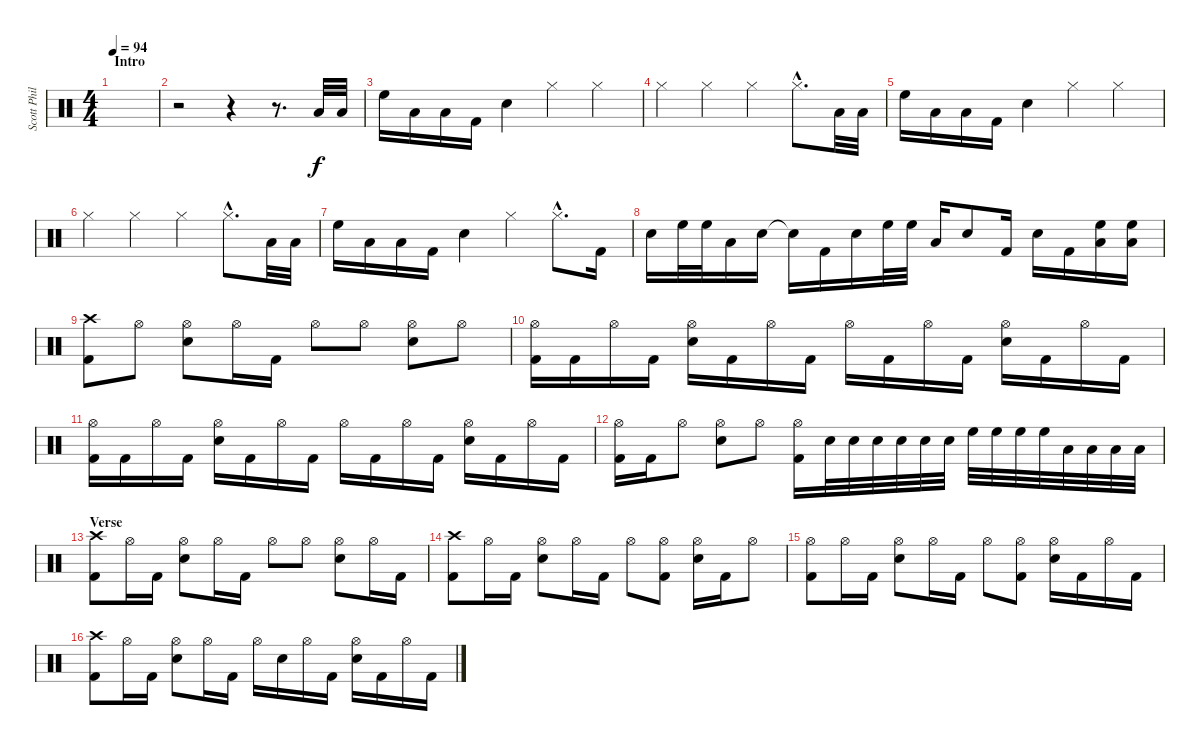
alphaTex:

\track ("Scott Phillips" "Scott Phil") {instrument percussion}
\staff {score}
\articulation defaults
\ts (4 4)
\section ("" "Intro")
\tempo 94
\clef neutral
\ks c
|
r.2 r.4 r.8{d} "Low Floor Tom (hit)".32 "Low Floor Tom (hit)".32 |
"High Floor Tom (hit)".16 "Low Floor Tom (hit)".16 "Low Floor Tom (hit)".16 "Kick (hit) 2".16 "Electric Snare (hit)".4 "Hi-Hat (closed)".4 "Hi-Hat (closed)".4 |
"Hi-Hat (closed)".4 "Hi-Hat (closed)".4 "Hi-Hat (closed)".4 "Hi-Hat (closed)"{hac}.8{d} "Low Floor Tom (hit)".32 "Low Floor Tom (hit)".32 |
"High Floor Tom (hit)".16 "Low Floor Tom (hit)".16 "Low Floor Tom (hit)".16 "Kick (hit) 2".16 "Electric Snare (hit)".4 "Hi-Hat (closed)".4 "Hi-Hat (closed)".4 |
"Hi-Hat (closed)".4 "Hi-Hat (closed)".4 "Hi-Hat (closed)".4 "Hi-Hat (closed)"{hac}.8{d} "Low Floor Tom (hit)".32 "Low Floor Tom (hit)".32 |
"High Floor Tom (hit)".16 "Low Floor Tom (hit)".16 "Low Floor Tom (hit)".16 "Kick (hit) 2".16 "Electric Snare (hit)".4 "Hi-Hat (closed)".4 "Hi-Hat (closed)"{hac}.8{d} "Kick (hit) 2".16 |
"Electric Snare (hit)".16 "High Floor Tom (hit)".32 "High Floor Tom (hit)".32 "Low Floor Tom (hit)".16 "Electric Snare (hit)".16 "Snare (hit)"{t}.16 "Kick (hit) 2".16 "Electric Snare (hit)".16 "High Floor Tom (hit)".32 "High Floor Tom (hit)".32 "Low Floor Tom (hit)".16 "Electric Snare (hit)".8 "Kick (hit) 2".16 "Electric Snare (hit)".16 "Kick (hit) 2".16 ("High Floor Tom (hit)" "Low Floor Tom (hit)").16 ("High Floor Tom (hit)" "Low Floor Tom (hit)").16 |
("Crash high (hit)" "Kick (hit) 2").8 "Hi-Hat (open)".8 ("Hi-Hat (open)" "Electric Snare (hit)").8 "Hi-Hat (open)".16 "Kick (hit) 2".16 "Hi-Hat (open)".8 "Hi-Hat (open)".8 ("Hi-Hat (open)" "Electric Snare (hit)").8 "Hi-Hat (open)".8 |
("Hi-Hat (open)" "Kick (hit) 2").16 "Kick (hit) 2".16 "Hi-Hat (open)".16 "Kick (hit) 2".16 ("Hi-Hat (open)" "Electric Snare (hit)").16 "Kick (hit) 2".16 "Hi-Hat (open)".16 "Kick (hit) 2".16 "Hi-Hat (open)".16 "Kick (hit) 2".16 "Hi-Hat (open)".16 "Kick (hit) 2".16 ("Hi-Hat (open)" "Electric Snare (hit)").16 "Kick (hit) 2".16 "Hi-Hat (open)".16 "Kick (hit) 2".16 |
("Hi-Hat (open)" "Kick (hit) 2").16 "Kick (hit) 2".16 "Hi-Hat (open)".16 "Kick (hit) 2".16 ("Hi-Hat (open)" "Electric Snare (hit)").16 "Kick (hit) 2".16 "Hi-Hat (open)".16 "Kick (hit) 2".16 "Hi-Hat (open)".16 "Kick (hit) 2".16 "Hi-Hat (open)".16 "Kick (hit) 2".16 ("Hi-Hat (open)" "Electric Snare (hit)").16 "Kick (hit) 2".16 "Hi-Hat (open)".16 "Kick (hit) 2".16 |
("Hi-Hat (open)" "Kick (hit) 2").16 "Kick (hit) 2".16 "Hi-Hat (open)".8 ("Hi-Hat (open)" "Electric Snare (hit)").8 "Hi-Hat (open)".8 ("Hi-Hat (open)" "Kick (hit) 2").16 "Electric Snare (hit)".32 "Electric Snare (hit)".32 "Electric Snare (hit)".32 "Electric Snare (hit)".32 "Electric Snare (hit)".32 "Electric Snare (hit)".32 "High Floor Tom (hit)".32 "High Floor Tom (hit)".32 "High Floor Tom (hit)".32 "High Floor Tom (hit)".32 "Low Tom (hit)".32 "Low Tom (hit)".32 "Low Floor Tom (hit)".32 "Low Floor Tom (hit)".32 |
\section ("" "Verse")
("Crash high (hit)" "Kick (hit) 2").8 "Hi-Hat (open)".16 "Kick (hit) 2".16 ("Hi-Hat (open)" "Electric Snare (hit)").8 "Hi-Hat (open)".16 "Kick (hit) 2".16 "Hi-Hat (open)".8 "Hi-Hat (open)".8 ("Hi-Hat (open)" "Electric Snare (hit)").8 "Hi-Hat (open)".16 "Kick (hit) 2".16 |
("Crash high (hit)" "Kick (hit) 2").8 "Hi-Hat (open)".16 "Kick (hit) 2".16 ("Hi-Hat (open)" "Electric Snare (hit)").8 "Hi-Hat (open)".16 "Kick (hit) 2".16 "Hi-Hat (open)".8 ("Hi-Hat (open)" "Kick (hit) 2").8 ("Hi-Hat (open)" "Electric Snare (hit)").16 "Kick (hit) 2".16 "Hi-Hat (open)".8 |
("Hi-Hat (open)" "Kick (hit) 2").8 "Hi-Hat (open)".16 "Kick (hit) 2".16 ("Hi-Hat (open)" "Electric Snare (hit)").8 "Hi-Hat (open)".16 "Kick (hit) 2".16 "Hi-Hat (open)".8 ("Hi-Hat (open)" "Kick (hit) 2").8 ("Hi-Hat (open)" "Electric Snare (hit)").16 "Kick (hit) 2".16 "Hi-Hat (open)".16 "Kick (hit) 2".16 |
("Crash high (hit)" "Kick (hit) 2").8 "Hi-Hat (open)".16 "Kick (hit) 2".16 ("Hi-Hat (open)" "Electric Snare (hit)").8 "Hi-Hat (open)".16 "Kick (hit) 2".16 "Hi-Hat (open)".16 "Electric Snare (hit)".16 "Hi-Hat (open)".16 "Kick (hit) 2".16 ("Hi-Hat (open)" "Electric Snare (hit)").16 "Kick (hit) 2".16 "Hi-Hat (open)".16 "Kick (hit) 2".16
